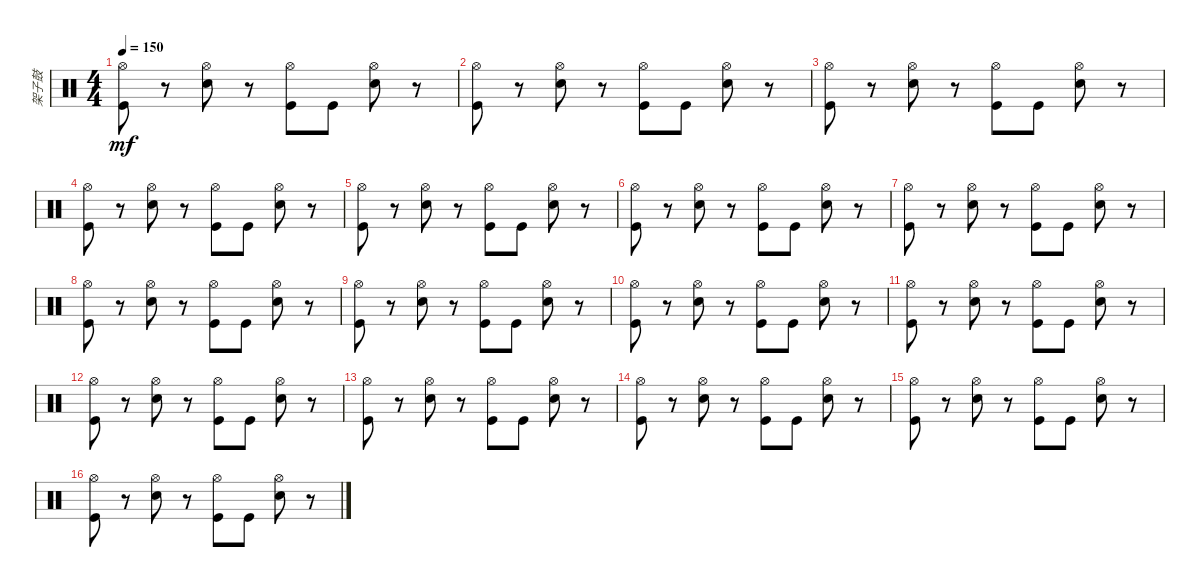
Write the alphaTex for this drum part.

\track ("架子鼓" "架子鼓") {instrument percussion}
\staff {score}
\articulation defaults
\ts (4 4)
\tempo 150
\clef neutral
\ks c
("Hi-Hat (open)" "Kick (hit)").8{dy mf} r.8 ("Hi-Hat (open)" "Snare (hit) 2").8 r.8 ("Hi-Hat (open)" "Kick (hit)").8 "Kick (hit)".8 ("Hi-Hat (open)" "Snare (hit) 2").8 r.8 |
("Hi-Hat (open)" "Kick (hit)").8 r.8 ("Hi-Hat (open)" "Snare (hit) 2").8 r.8 ("Hi-Hat (open)" "Kick (hit)").8 "Kick (hit)".8 ("Hi-Hat (open)" "Snare (hit) 2").8 r.8 |
("Hi-Hat (open)" "Kick (hit)").8 r.8 ("Hi-Hat (open)" "Snare (hit) 2").8 r.8 ("Hi-Hat (open)" "Kick (hit)").8 "Kick (hit)".8 ("Hi-Hat (open)" "Snare (hit) 2").8 r.8 |
("Hi-Hat (open)" "Kick (hit)").8 r.8 ("Hi-Hat (open)" "Snare (hit) 2").8 r.8 ("Hi-Hat (open)" "Kick (hit)").8 "Kick (hit)".8 ("Hi-Hat (open)" "Snare (hit) 2").8 r.8 |
("Hi-Hat (open)" "Kick (hit)").8 r.8 ("Hi-Hat (open)" "Snare (hit) 2").8 r.8 ("Hi-Hat (open)" "Kick (hit)").8 "Kick (hit)".8 ("Hi-Hat (open)" "Snare (hit) 2").8 r.8 |
("Hi-Hat (open)" "Kick (hit)").8 r.8 ("Hi-Hat (open)" "Snare (hit) 2").8 r.8 ("Hi-Hat (open)" "Kick (hit)").8 "Kick (hit)".8 ("Hi-Hat (open)" "Snare (hit) 2").8 r.8 |
("Hi-Hat (open)" "Kick (hit)").8 r.8 ("Hi-Hat (open)" "Snare (hit) 2").8 r.8 ("Hi-Hat (open)" "Kick (hit)").8 "Kick (hit)".8 ("Hi-Hat (open)" "Snare (hit) 2").8 r.8 |
("Hi-Hat (open)" "Kick (hit)").8 r.8 ("Hi-Hat (open)" "Snare (hit) 2").8 r.8 ("Hi-Hat (open)" "Kick (hit)").8 "Kick (hit)".8 ("Hi-Hat (open)" "Snare (hit) 2").8 r.8 |
("Hi-Hat (open)" "Kick (hit)").8 r.8 ("Hi-Hat (open)" "Snare (hit) 2").8 r.8 ("Hi-Hat (open)" "Kick (hit)").8 "Kick (hit)".8 ("Hi-Hat (open)" "Snare (hit) 2").8 r.8 |
("Hi-Hat (open)" "Kick (hit)").8 r.8 ("Hi-Hat (open)" "Snare (hit) 2").8 r.8 ("Hi-Hat (open)" "Kick (hit)").8 "Kick (hit)".8 ("Hi-Hat (open)" "Snare (hit) 2").8 r.8 |
("Hi-Hat (open)" "Kick (hit)").8 r.8 ("Hi-Hat (open)" "Snare (hit) 2").8 r.8 ("Hi-Hat (open)" "Kick (hit)").8 "Kick (hit)".8 ("Hi-Hat (open)" "Snare (hit) 2").8 r.8 |
("Hi-Hat (open)" "Kick (hit)").8 r.8 ("Hi-Hat (open)" "Snare (hit) 2").8 r.8 ("Hi-Hat (open)" "Kick (hit)").8 "Kick (hit)".8 ("Hi-Hat (open)" "Snare (hit) 2").8 r.8 |
("Hi-Hat (open)" "Kick (hit)").8 r.8 ("Hi-Hat (open)" "Snare (hit) 2").8 r.8 ("Hi-Hat (open)" "Kick (hit)").8 "Kick (hit)".8 ("Hi-Hat (open)" "Snare (hit) 2").8 r.8 |
("Hi-Hat (open)" "Kick (hit)").8 r.8 ("Hi-Hat (open)" "Snare (hit) 2").8 r.8 ("Hi-Hat (open)" "Kick (hit)").8 "Kick (hit)".8 ("Hi-Hat (open)" "Snare (hit) 2").8 r.8 |
("Hi-Hat (open)" "Kick (hit)").8 r.8 ("Hi-Hat (open)" "Snare (hit) 2").8 r.8 ("Hi-Hat (open)" "Kick (hit)").8 "Kick (hit)".8 ("Hi-Hat (open)" "Snare (hit) 2").8 r.8 |
("Hi-Hat (open)" "Kick (hit)").8 r.8 ("Hi-Hat (open)" "Snare (hit) 2").8 r.8 ("Hi-Hat (open)" "Kick (hit)").8 "Kick (hit)".8 ("Hi-Hat (open)" "Snare (hit) 2").8 r.8
